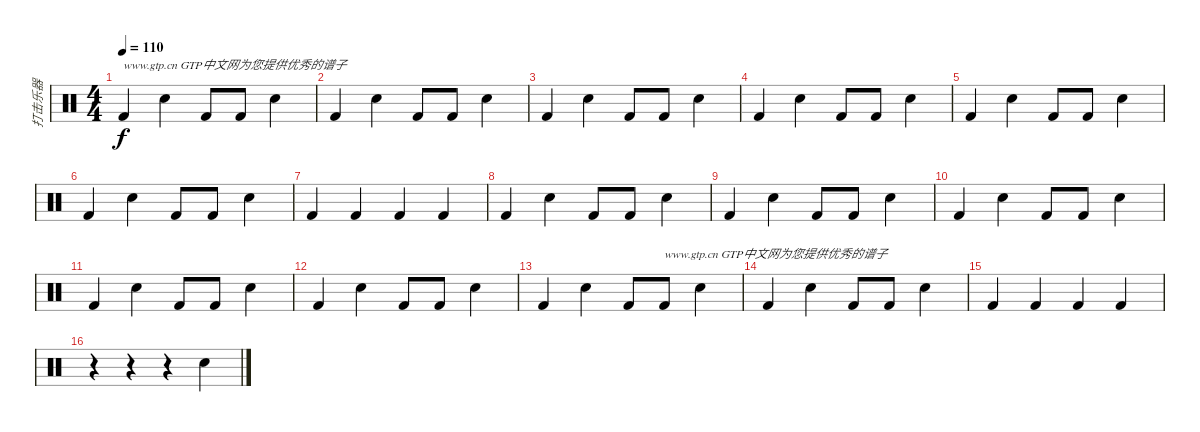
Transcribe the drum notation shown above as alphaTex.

\track ("打击乐器" "打击乐器") {instrument percussion}
\staff {score}
\articulation defaults
\ts (4 4)
\tempo 110
\clef neutral
\ks c "Kick (hit) 2".4{txt "www.gtp.cn GTP中文网为您提供优秀的谱子" dy f} "Electric Snare (hit)".4 "Kick (hit) 2".8 "Kick (hit) 2".8 "Electric Snare (hit)".4
|
"Kick (hit) 2".4 "Electric Snare (hit)".4 "Kick (hit) 2".8 "Kick (hit) 2".8 "Electric Snare (hit)".4 |
"Kick (hit) 2".4 "Electric Snare (hit)".4 "Kick (hit) 2".8 "Kick (hit) 2".8 "Electric Snare (hit)".4 |
"Kick (hit) 2".4 "Electric Snare (hit)".4 "Kick (hit) 2".8 "Kick (hit) 2".8 "Electric Snare (hit)".4 |
"Kick (hit) 2".4 "Electric Snare (hit)".4 "Kick (hit) 2".8 "Kick (hit) 2".8 "Electric Snare (hit)".4 |
"Kick (hit) 2".4 "Electric Snare (hit)".4 "Kick (hit) 2".8 "Kick (hit) 2".8 "Electric Snare (hit)".4 |
"Kick (hit) 2".4 "Kick (hit) 2".4 "Kick (hit) 2".4 "Kick (hit) 2".4 |
"Kick (hit) 2".4 "Electric Snare (hit)".4 "Kick (hit) 2".8 "Kick (hit) 2".8 "Electric Snare (hit)".4 |
"Kick (hit) 2".4 "Electric Snare (hit)".4 "Kick (hit) 2".8 "Kick (hit) 2".8 "Electric Snare (hit)".4 |
"Kick (hit) 2".4 "Electric Snare (hit)".4 "Kick (hit) 2".8 "Kick (hit) 2".8 "Electric Snare (hit)".4 |
"Kick (hit) 2".4 "Electric Snare (hit)".4 "Kick (hit) 2".8 "Kick (hit) 2".8 "Electric Snare (hit)".4 |
"Kick (hit) 2".4 "Electric Snare (hit)".4 "Kick (hit) 2".8 "Kick (hit) 2".8 "Electric Snare (hit)".4 |
"Kick (hit) 2".4 "Electric Snare (hit)".4 "Kick (hit) 2".8 "Kick (hit) 2".8{txt "www.gtp.cn GTP中文网为您提供优秀的谱子"} "Electric Snare (hit)".4 |
"Kick (hit) 2".4 "Electric Snare (hit)".4 "Kick (hit) 2".8 "Kick (hit) 2".8 "Electric Snare (hit)".4 |
"Kick (hit) 2".4 "Kick (hit) 2".4 "Kick (hit) 2".4 "Kick (hit) 2".4 |
r.4 r.4 r.4 "Electric Snare (hit)".4
